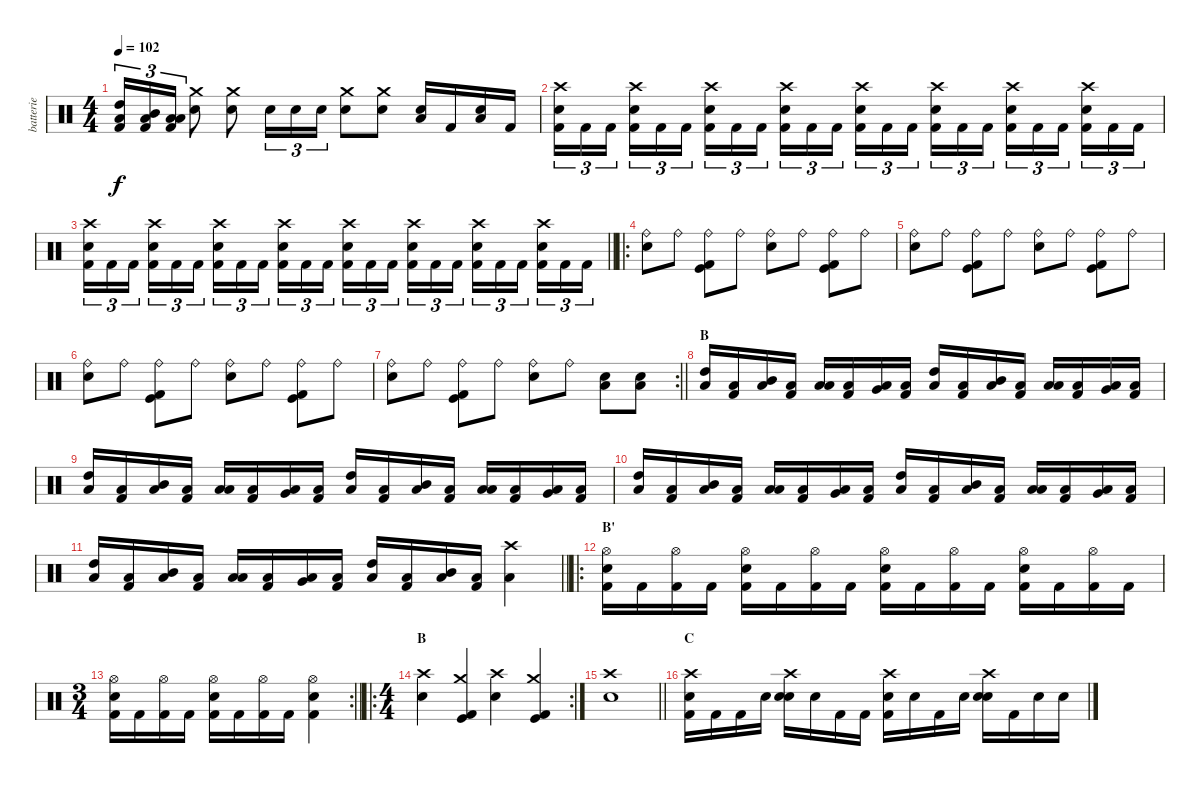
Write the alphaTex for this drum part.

\track ("batterie" "batterie") {instrument percussion}
\staff {score}
\articulation defaults
\ts (4 4)
\tempo 102
\clef neutral
\ks c
("High Tom (hit)" "Low Floor Tom (hit)" "Kick (hit) 2").16{tu (3 2) dy f} ("Mid Tom (hit)" "Low Floor Tom (hit)" "Kick (hit) 2").16{tu (3 2)} ("Low Tom (hit)" "Low Floor Tom (hit)" "Kick (hit) 2").16{tu (3 2)} ("Snare (hit) 2" "Crash medium (hit)").8 ("Snare (hit) 2" "Crash medium (hit)").8 "Snare (hit) 2".16{tu (3 2)} "Snare (hit) 2".16{tu (3 2)} "Snare (hit) 2".16{tu (3 2)} ("Snare (hit) 2" "Crash medium (hit)").8 ("Snare (hit) 2" "Crash medium (hit)").8 ("Electric Snare (hit)" "Low Floor Tom (hit)").16 "Kick (hit) 2".16 ("Electric Snare (hit)" "Low Floor Tom (hit)").16 "Kick (hit) 2".16 |
("Snare (hit) 2" "Crash high (hit)" "Kick (hit) 2").16{tu (3 2)} "Kick (hit) 2".16{tu (3 2)} "Kick (hit) 2".16{tu (3 2) beam splitsecondary} ("Snare (hit) 2" "Crash high (hit)" "Kick (hit) 2").16{tu (3 2)} "Kick (hit) 2".16{tu (3 2)} "Kick (hit) 2".16{tu (3 2)} ("Snare (hit) 2" "Crash high (hit)" "Kick (hit) 2").16{tu (3 2)} "Kick (hit) 2".16{tu (3 2)} "Kick (hit) 2".16{tu (3 2) beam splitsecondary} ("Snare (hit) 2" "Crash high (hit)" "Kick (hit) 2").16{tu (3 2)} "Kick (hit) 2".16{tu (3 2)} "Kick (hit) 2".16{tu (3 2)} ("Snare (hit) 2" "Crash high (hit)" "Kick (hit) 2").16{tu (3 2)} "Kick (hit) 2".16{tu (3 2)} "Kick (hit) 2".16{tu (3 2) beam splitsecondary} ("Snare (hit) 2" "Crash high (hit)" "Kick (hit) 2").16{tu (3 2)} "Kick (hit) 2".16{tu (3 2)} "Kick (hit) 2".16{tu (3 2)} ("Snare (hit) 2" "Crash high (hit)" "Kick (hit) 2").16{tu (3 2)} "Kick (hit) 2".16{tu (3 2)} "Kick (hit) 2".16{tu (3 2) beam splitsecondary} ("Snare (hit) 2" "Crash high (hit)" "Kick (hit) 2").16{tu (3 2)} "Kick (hit) 2".16{tu (3 2)} "Kick (hit) 2".16{tu (3 2)} |
\barLineRight lightlight
("Snare (hit) 2" "Crash high (hit)" "Kick (hit) 2").16{tu (3 2)} "Kick (hit) 2".16{tu (3 2)} "Kick (hit) 2".16{tu (3 2) beam splitsecondary} ("Snare (hit) 2" "Crash high (hit)" "Kick (hit) 2").16{tu (3 2)} "Kick (hit) 2".16{tu (3 2)} "Kick (hit) 2".16{tu (3 2)} ("Snare (hit) 2" "Crash high (hit)" "Kick (hit) 2").16{tu (3 2)} "Kick (hit) 2".16{tu (3 2)} "Kick (hit) 2".16{tu (3 2) beam splitsecondary} ("Snare (hit) 2" "Crash high (hit)" "Kick (hit) 2").16{tu (3 2)} "Kick (hit) 2".16{tu (3 2)} "Kick (hit) 2".16{tu (3 2)} ("Snare (hit) 2" "Crash high (hit)" "Kick (hit) 2").16{tu (3 2)} "Kick (hit) 2".16{tu (3 2)} "Kick (hit) 2".16{tu (3 2) beam splitsecondary} ("Snare (hit) 2" "Crash high (hit)" "Kick (hit) 2").16{tu (3 2)} "Kick (hit) 2".16{tu (3 2)} "Kick (hit) 2".16{tu (3 2)} ("Snare (hit) 2" "Crash high (hit)" "Kick (hit) 2").16{tu (3 2)} "Kick (hit) 2".16{tu (3 2)} "Kick (hit) 2".16{tu (3 2) beam splitsecondary} ("Snare (hit) 2" "Crash high (hit)" "Kick (hit) 2").16{tu (3 2)} "Kick (hit) 2".16{tu (3 2)} "Kick (hit) 2".16{tu (3 2)} |
\ro
("Snare (hit) 2" "Ride (bell)").8 "Ride (bell)".8 ("Ride (bell)" "Kick (hit)" "Kick (hit) 2").8 "Ride (bell)".8 ("Snare (hit) 2" "Ride (bell)").8 "Ride (bell)".8 ("Ride (bell)" "Kick (hit)" "Kick (hit) 2").8 "Ride (bell)".8 |
("Snare (hit) 2" "Ride (bell)").8 "Ride (bell)".8 ("Ride (bell)" "Kick (hit)" "Kick (hit) 2").8 "Ride (bell)".8 ("Snare (hit) 2" "Ride (bell)").8 "Ride (bell)".8 ("Ride (bell)" "Kick (hit)" "Kick (hit) 2").8 "Ride (bell)".8 |
("Snare (hit) 2" "Ride (bell)").8 "Ride (bell)".8 ("Ride (bell)" "Kick (hit)" "Kick (hit) 2").8 "Ride (bell)".8 ("Snare (hit) 2" "Ride (bell)").8 "Ride (bell)".8 ("Ride (bell)" "Kick (hit)" "Kick (hit) 2").8 "Ride (bell)".8 |
\rc 2
\barLineRight lightlight
("Snare (hit) 2" "Ride (bell)").8 "Ride (bell)".8 ("Ride (bell)" "Kick (hit)" "Kick (hit) 2").8 "Ride (bell)".8 ("Snare (hit) 2" "Ride (bell)").8 "Ride (bell)".8 ("Electric Snare (hit)" "Low Floor Tom (hit)").8 ("Electric Snare (hit)" "Low Floor Tom (hit)").8 |
\section ("" "B")
("High Tom (hit)" "Low Floor Tom (hit)").16 ("Low Floor Tom (hit)" "Kick (hit) 2").16 ("Mid Tom (hit)" "Low Floor Tom (hit)").16 ("Low Floor Tom (hit)" "Kick (hit) 2").16 ("Low Tom (hit)" "Low Floor Tom (hit)").16 ("Low Floor Tom (hit)" "Kick (hit) 2").16 ("Very Low Tom (hit)" "Low Floor Tom (hit)").16 ("Low Floor Tom (hit)" "Kick (hit) 2").16 ("High Tom (hit)" "Low Floor Tom (hit)").16 ("Low Floor Tom (hit)" "Kick (hit) 2").16 ("Mid Tom (hit)" "Low Floor Tom (hit)").16 ("Low Floor Tom (hit)" "Kick (hit) 2").16 ("Low Tom (hit)" "Low Floor Tom (hit)").16 ("Low Floor Tom (hit)" "Kick (hit) 2").16 ("Very Low Tom (hit)" "Low Floor Tom (hit)").16 ("Low Floor Tom (hit)" "Kick (hit) 2").16 |
("High Tom (hit)" "Low Floor Tom (hit)").16 ("Low Floor Tom (hit)" "Kick (hit) 2").16 ("Mid Tom (hit)" "Low Floor Tom (hit)").16 ("Low Floor Tom (hit)" "Kick (hit) 2").16 ("Low Tom (hit)" "Low Floor Tom (hit)").16 ("Low Floor Tom (hit)" "Kick (hit) 2").16 ("Very Low Tom (hit)" "Low Floor Tom (hit)").16 ("Low Floor Tom (hit)" "Kick (hit) 2").16 ("High Tom (hit)" "Low Floor Tom (hit)").16 ("Low Floor Tom (hit)" "Kick (hit) 2").16 ("Mid Tom (hit)" "Low Floor Tom (hit)").16 ("Low Floor Tom (hit)" "Kick (hit) 2").16 ("Low Tom (hit)" "Low Floor Tom (hit)").16 ("Low Floor Tom (hit)" "Kick (hit) 2").16 ("Very Low Tom (hit)" "Low Floor Tom (hit)").16 ("Low Floor Tom (hit)" "Kick (hit) 2").16 |
("High Tom (hit)" "Low Floor Tom (hit)").16 ("Low Floor Tom (hit)" "Kick (hit) 2").16 ("Mid Tom (hit)" "Low Floor Tom (hit)").16 ("Low Floor Tom (hit)" "Kick (hit) 2").16 ("Low Tom (hit)" "Low Floor Tom (hit)").16 ("Low Floor Tom (hit)" "Kick (hit) 2").16 ("Very Low Tom (hit)" "Low Floor Tom (hit)").16 ("Low Floor Tom (hit)" "Kick (hit) 2").16 ("High Tom (hit)" "Low Floor Tom (hit)").16 ("Low Floor Tom (hit)" "Kick (hit) 2").16 ("Mid Tom (hit)" "Low Floor Tom (hit)").16 ("Low Floor Tom (hit)" "Kick (hit) 2").16 ("Low Tom (hit)" "Low Floor Tom (hit)").16 ("Low Floor Tom (hit)" "Kick (hit) 2").16 ("Very Low Tom (hit)" "Low Floor Tom (hit)").16 ("Low Floor Tom (hit)" "Kick (hit) 2").16 |
\barLineRight lightlight
("High Tom (hit)" "Low Floor Tom (hit)").16 ("Low Floor Tom (hit)" "Kick (hit) 2").16 ("Mid Tom (hit)" "Low Floor Tom (hit)").16 ("Low Floor Tom (hit)" "Kick (hit) 2").16 ("Low Tom (hit)" "Low Floor Tom (hit)").16 ("Low Floor Tom (hit)" "Kick (hit) 2").16 ("Very Low Tom (hit)" "Low Floor Tom (hit)").16 ("Low Floor Tom (hit)" "Kick (hit) 2").16 ("High Tom (hit)" "Low Floor Tom (hit)").16 ("Low Floor Tom (hit)" "Kick (hit) 2").16 ("Mid Tom (hit)" "Low Floor Tom (hit)").16 ("Low Floor Tom (hit)" "Kick (hit) 2").16 ("Low Tom (hit)" "Crash high (hit)").4 |
\ro
\section ("" "B'")
("Snare (hit) 2" "Hi-Hat (open)" "Kick (hit) 2").16 "Kick (hit) 2".16 ("Hi-Hat (open)" "Kick (hit) 2").16 "Kick (hit) 2".16 ("Snare (hit) 2" "Hi-Hat (open)" "Kick (hit) 2").16 "Kick (hit) 2".16 ("Hi-Hat (open)" "Kick (hit) 2").16 "Kick (hit) 2".16 ("Snare (hit) 2" "Hi-Hat (open)" "Kick (hit) 2").16 "Kick (hit) 2".16 ("Hi-Hat (open)" "Kick (hit) 2").16 "Kick (hit) 2".16 ("Snare (hit) 2" "Hi-Hat (open)" "Kick (hit) 2").16 "Kick (hit) 2".16 ("Hi-Hat (open)" "Kick (hit) 2").16 "Kick (hit) 2".16 |
\rc 2
\ts (3 4)
\barLineRight lightlight
("Snare (hit) 2" "Hi-Hat (open)" "Kick (hit) 2").16 "Kick (hit) 2".16 ("Hi-Hat (open)" "Kick (hit) 2").16 "Kick (hit) 2".16 ("Snare (hit) 2" "Hi-Hat (open)" "Kick (hit) 2").16 "Kick (hit) 2".16 ("Hi-Hat (open)" "Kick (hit) 2").16 "Kick (hit) 2".16 ("Snare (hit) 2" "Hi-Hat (open)" "Kick (hit) 2").4 |
\ro
\rc 2
\ts (4 4)
\section ("" "B")
("Snare (hit) 2" "Crash high (hit)").4 ("Crash medium (hit)" "Kick (hit) 2" "Kick (hit)").4 ("Snare (hit) 2" "Crash high (hit)").4 ("Crash medium (hit)" "Kick (hit)" "Kick (hit) 2").4 |
\barLineRight lightlight
("Snare (hit) 2" "Crash high (hit)").1 |
\section ("" "C")
("Snare (hit) 2" "Crash high (hit)" "Kick (hit) 2").16 "Kick (hit) 2".16 "Kick (hit) 2".16 "Snare (hit)".16 ("Snare (hit) 2" "Crash high (hit)" "Snare (hit)").16 "Snare (hit)".16 "Kick (hit) 2".16 "Kick (hit) 2".16 ("Snare (hit) 2" "Crash high (hit)" "Kick (hit) 2").16 "Snare (hit)".16 "Kick (hit) 2".16 "Snare (hit)".16 ("Snare (hit) 2" "Crash high (hit)" "Snare (hit)").16 "Kick (hit) 2".16 "Snare (hit)".16 "Snare (hit)".16
